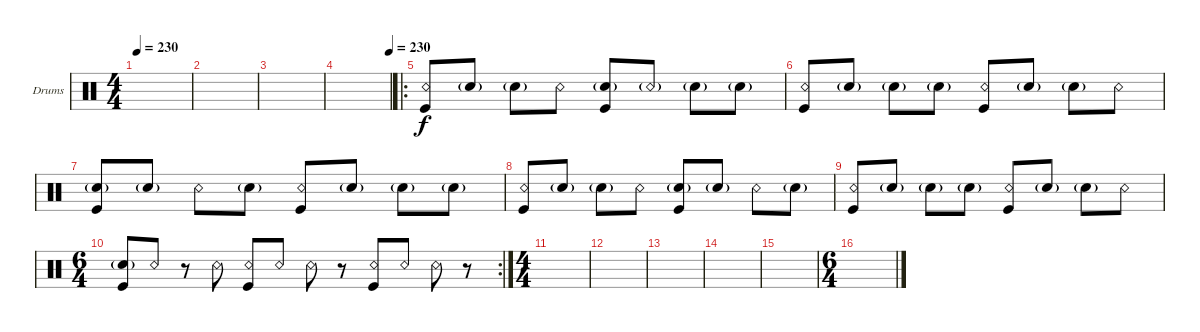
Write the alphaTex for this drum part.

\bracketExtendMode groupsimilarinstruments
\firstSystemTrackNameOrientation horizontal
\otherSystemsTrackNameOrientation horizontal
\track ("Drumkit" "Drums") {solo instrument percussion}
\staff {score}
\articulation defaults
\ts (4 4)
\tempo 230
\clef neutral
\ks c
|
|
|
\tempo (230 1)
|
\ro
("Snare (rim shot)" "Kick (hit)").8 "Snare (hit) 2"{g}.8 "Snare (hit) 2"{g}.8 "Snare (rim shot)".8 ("Snare (hit) 2"{g} "Kick (hit)").8 "Snare (rim shot)"{g}.8 "Snare (hit) 2"{g}.8 "Snare (hit) 2"{g}.8 |
("Kick (hit)" "Snare (rim shot)").8 "Snare (hit) 2"{g}.8 "Snare (hit) 2"{g}.8 "Snare (hit) 2"{g}.8 ("Snare (rim shot)" "Kick (hit)").8 "Snare (hit) 2"{g}.8 "Snare (hit) 2"{g}.8 "Snare (rim shot)".8 |
("Snare (hit) 2"{g} "Kick (hit)").8 "Snare (hit) 2"{g}.8 "Snare (rim shot)".8 "Snare (hit) 2"{g}.8 ("Snare (rim shot)" "Kick (hit)").8 "Snare (hit) 2"{g}.8 "Snare (hit) 2"{g}.8 "Snare (hit) 2"{g}.8 |
("Snare (rim shot)" "Kick (hit)").8 "Snare (hit) 2"{g}.8 "Snare (hit) 2"{g}.8 "Snare (rim shot)".8 ("Snare (hit) 2"{g} "Kick (hit)").8 "Snare (hit) 2"{g}.8 "Snare (rim shot)".8 "Snare (hit) 2"{g}.8 |
("Snare (rim shot)" "Kick (hit)").8 "Snare (hit) 2"{g}.8 "Snare (hit) 2"{g}.8 "Snare (hit) 2"{g}.8 ("Snare (rim shot)" "Kick (hit)").8 "Snare (hit) 2"{g}.8 "Snare (hit) 2"{g}.8 "Snare (rim shot)".8 |
\rc 2
\ts (6 4)
("Snare (hit) 2"{g} "Kick (hit)").8 "Snare (rim shot)".8 r.8 "Snare (rim shot)".8 ("Snare (rim shot)" "Kick (hit)").8 "Snare (rim shot)".8 "Snare (rim shot)".8 r.8 ("Snare (rim shot)" "Kick (hit)").8 "Snare (rim shot)".8 "Snare (rim shot)".8 r.8 |
\ts (4 4)
|
|
|
|
|
\ts (6 4)
